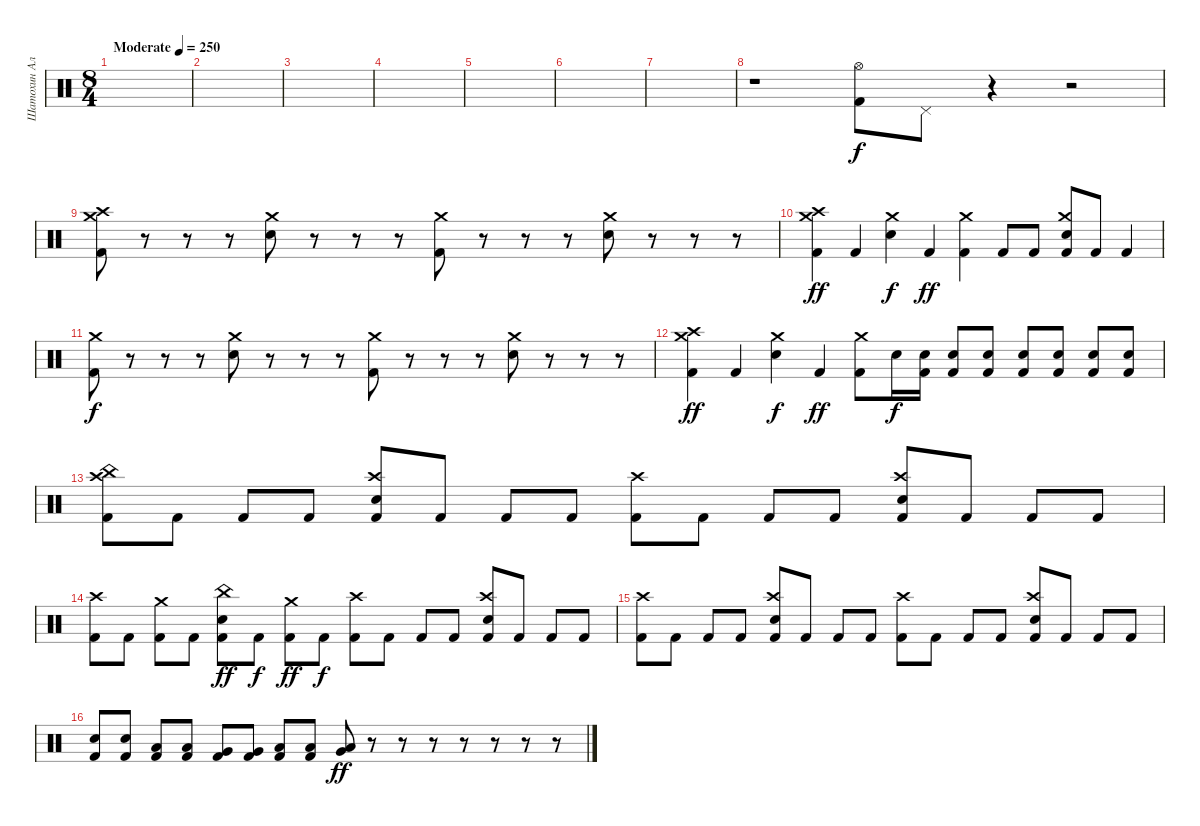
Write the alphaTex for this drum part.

\track ("Шатохин Алексей" "Шатохин Ал") {instrument percussion}
\staff {score}
\articulation defaults
\ts (8 4)
\tempo (250 "Moderate")
\clef neutral
\ks c
|
|
|
|
|
|
|
r.1 ("Hi-Hat (open)" "Kick (hit) 2").8 "Pedal Hi-Hat (hit)".8 r.4 r.2 |
("Crash medium (hit)" "Kick (hit) 2" "Crash high (hit)").8 r.8 r.8 r.8 ("Crash medium (hit)" "Electric Snare (hit)").8 r.8 r.8 r.8 ("Crash medium (hit)" "Kick (hit) 2").8 r.8 r.8 r.8 ("Crash medium (hit)" "Electric Snare (hit)").8 r.8 r.8 r.8 |
("Crash medium (hit)" "Crash high (hit)" "Kick (hit) 2").4{dy ff} "Kick (hit) 2".4 ("Crash medium (hit)" "Electric Snare (hit)").4{dy f} "Kick (hit) 2".4{dy ff} ("Crash medium (hit)" "Kick (hit) 2").4 "Kick (hit) 2".8 "Kick (hit) 2".8 ("Crash medium (hit)" "Electric Snare (hit)" "Kick (hit) 2").8 "Kick (hit) 2".8 "Kick (hit) 2".4 |
("Crash medium (hit)" "Kick (hit) 2").8{dy f} r.8 r.8 r.8 ("Crash medium (hit)" "Electric Snare (hit)").8 r.8 r.8 r.8 ("Crash medium (hit)" "Kick (hit) 2").8 r.8 r.8 r.8 ("Crash medium (hit)" "Electric Snare (hit)").8 r.8 r.8 r.8 |
("Crash medium (hit)" "Crash high (hit)" "Kick (hit) 2").4{dy ff} "Kick (hit) 2".4 ("Crash medium (hit)" "Electric Snare (hit)").4{dy f} "Kick (hit) 2".4{dy ff} ("Crash medium (hit)" "Kick (hit) 2").8 "Electric Snare (hit)".16{dy f} ("Electric Snare (hit)" "Kick (hit) 2").16 ("Electric Snare (hit)" "Kick (hit) 2").8 ("Electric Snare (hit)" "Kick (hit) 2").8 ("Electric Snare (hit)" "Kick (hit) 2").8 ("Electric Snare (hit)" "Kick (hit) 2").8 ("Electric Snare (hit)" "Kick (hit) 2").8 ("Electric Snare (hit)" "Kick (hit) 2").8 |
("Kick (hit) 2" "China (hit)" "Crash high (hit)").8 "Kick (hit) 2".8 "Kick (hit) 2".8 "Kick (hit) 2".8 ("Kick (hit) 2" "Electric Snare (hit)" "Crash high (hit)").8 "Kick (hit) 2".8 "Kick (hit) 2".8 "Kick (hit) 2".8 ("Kick (hit) 2" "Crash high (hit)").8 "Kick (hit) 2".8 "Kick (hit) 2".8 "Kick (hit) 2".8 ("Kick (hit) 2" "Electric Snare (hit)" "Crash high (hit)").8 "Kick (hit) 2".8 "Kick (hit) 2".8 "Kick (hit) 2".8 |
("Kick (hit) 2" "Crash high (hit)").8 "Kick (hit) 2".8 ("Kick (hit) 2" "Crash medium (hit)").8 "Kick (hit) 2".8 ("Kick (hit) 2" "Electric Snare (hit)" "China (hit)").8{dy ff} "Kick (hit) 2".8{dy f} ("Kick (hit) 2" "Crash medium (hit)").8{dy ff} "Kick (hit) 2".8{dy f} ("Kick (hit) 2" "Crash high (hit)").8 "Kick (hit) 2".8 "Kick (hit) 2".8 "Kick (hit) 2".8 ("Kick (hit) 2" "Electric Snare (hit)" "Crash high (hit)").8 "Kick (hit) 2".8 "Kick (hit) 2".8 "Kick (hit) 2".8 |
("Kick (hit) 2" "Crash high (hit)").8 "Kick (hit) 2".8 "Kick (hit) 2".8 "Kick (hit) 2".8 ("Kick (hit) 2" "Electric Snare (hit)" "Crash high (hit)").8 "Kick (hit) 2".8 "Kick (hit) 2".8 "Kick (hit) 2".8 ("Kick (hit) 2" "Crash high (hit)").8 "Kick (hit) 2".8 "Kick (hit) 2".8 "Kick (hit) 2".8 ("Kick (hit) 2" "Electric Snare (hit)" "Crash high (hit)").8 "Kick (hit) 2".8 "Kick (hit) 2".8 "Kick (hit) 2".8 |
("Kick (hit) 2" "Electric Snare (hit)").8 ("Kick (hit) 2" "Electric Snare (hit)").8 ("Kick (hit) 2" "Low Tom (hit)").8 ("Kick (hit) 2" "Low Tom (hit)").8 ("Kick (hit) 2" "Very Low Tom (hit)").8 ("Kick (hit) 2" "Very Low Tom (hit)").8 ("Kick (hit) 2" "Low Floor Tom (hit)").8 ("Kick (hit) 2" "Low Floor Tom (hit)").8 ("Very Low Tom (hit)" "Low Floor Tom (hit)").8{dy ff} r.8 r.8 r.8 r.8 r.8 r.8 r.8
